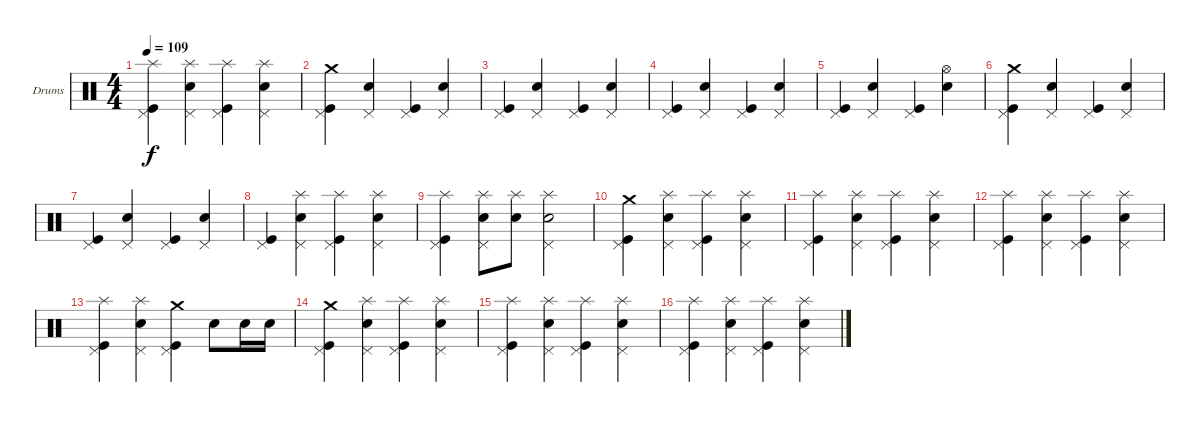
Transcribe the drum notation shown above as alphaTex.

\bracketExtendMode groupsimilarinstruments
\firstSystemTrackNameOrientation horizontal
\otherSystemsTrackNameOrientation horizontal
\track ("Drumkit" "Drums") {instrument percussion}
\staff {score}
\articulation defaults
\ts (4 4)
\tempo 109
\clef neutral
\ks c
("Splash (hit)" "Pedal Hi-Hat (hit)" "Kick (hit)").4{dy f} ("Splash (hit)" "Pedal Hi-Hat (hit)" "Snare (hit) 2").4 ("Splash (hit)" "Pedal Hi-Hat (hit)" "Kick (hit)").4 ("Splash (hit)" "Pedal Hi-Hat (hit)" "Snare (hit) 2").4 |
("Crash medium (hit)" "Pedal Hi-Hat (hit)" "Kick (hit)").4 ("Pedal Hi-Hat (hit)" "Snare (hit) 2").4 ("Pedal Hi-Hat (hit)" "Kick (hit)").4 ("Pedal Hi-Hat (hit)" "Snare (hit) 2").4 |
("Pedal Hi-Hat (hit)" "Kick (hit)").4 ("Pedal Hi-Hat (hit)" "Snare (hit) 2").4 ("Pedal Hi-Hat (hit)" "Kick (hit)").4 ("Pedal Hi-Hat (hit)" "Snare (hit) 2").4 |
("Pedal Hi-Hat (hit)" "Kick (hit)").4 ("Pedal Hi-Hat (hit)" "Snare (hit) 2").4 ("Pedal Hi-Hat (hit)" "Kick (hit)").4 ("Pedal Hi-Hat (hit)" "Snare (hit) 2").4 |
("Pedal Hi-Hat (hit)" "Kick (hit)").4 ("Pedal Hi-Hat (hit)" "Snare (hit) 2").4 ("Pedal Hi-Hat (hit)" "Kick (hit)").4 ("Hi-Hat (open)" "Snare (hit) 2").4 |
("Crash medium (hit)" "Pedal Hi-Hat (hit)" "Kick (hit)").4 ("Pedal Hi-Hat (hit)" "Snare (hit) 2").4 ("Pedal Hi-Hat (hit)" "Kick (hit)").4 ("Pedal Hi-Hat (hit)" "Snare (hit) 2").4 |
("Pedal Hi-Hat (hit)" "Kick (hit)").4 ("Pedal Hi-Hat (hit)" "Snare (hit) 2").4 ("Pedal Hi-Hat (hit)" "Kick (hit)").4 ("Pedal Hi-Hat (hit)" "Snare (hit) 2").4 |
("Pedal Hi-Hat (hit)" "Kick (hit)").4 ("Splash (hit)" "Pedal Hi-Hat (hit)" "Snare (hit) 2").4 ("Splash (hit)" "Pedal Hi-Hat (hit)" "Kick (hit)").4 ("Splash (hit)" "Pedal Hi-Hat (hit)" "Snare (hit) 2").4 |
("Splash (hit)" "Pedal Hi-Hat (hit)" "Kick (hit)").4 ("Splash (hit)" "Pedal Hi-Hat (hit)" "Snare (hit) 2").8 ("Splash (hit)" "Snare (hit) 2").8 ("Splash (hit)" "Pedal Hi-Hat (hit)" "Snare (hit) 2").2 |
("Crash medium (hit)" "Pedal Hi-Hat (hit)" "Kick (hit)").4 ("Splash (hit)" "Pedal Hi-Hat (hit)" "Snare (hit) 2").4 ("Splash (hit)" "Pedal Hi-Hat (hit)" "Kick (hit)").4 ("Splash (hit)" "Pedal Hi-Hat (hit)" "Snare (hit) 2").4 |
("Splash (hit)" "Pedal Hi-Hat (hit)" "Kick (hit)").4 ("Splash (hit)" "Pedal Hi-Hat (hit)" "Snare (hit) 2").4 ("Splash (hit)" "Pedal Hi-Hat (hit)" "Kick (hit)").4 ("Splash (hit)" "Pedal Hi-Hat (hit)" "Snare (hit) 2").4 |
("Splash (hit)" "Pedal Hi-Hat (hit)" "Kick (hit)").4 ("Splash (hit)" "Pedal Hi-Hat (hit)" "Snare (hit) 2").4 ("Splash (hit)" "Pedal Hi-Hat (hit)" "Kick (hit)").4 ("Splash (hit)" "Pedal Hi-Hat (hit)" "Snare (hit) 2").4 |
("Splash (hit)" "Pedal Hi-Hat (hit)" "Kick (hit)").4 ("Splash (hit)" "Pedal Hi-Hat (hit)" "Snare (hit) 2").4 ("Crash medium (hit)" "Pedal Hi-Hat (hit)" "Kick (hit)").4 "Snare (hit) 2".8 "Snare (hit) 2".16 "Snare (hit) 2".16 |
("Crash medium (hit)" "Pedal Hi-Hat (hit)" "Kick (hit)").4 ("Splash (hit)" "Pedal Hi-Hat (hit)" "Snare (hit) 2").4 ("Splash (hit)" "Pedal Hi-Hat (hit)" "Kick (hit)").4 ("Splash (hit)" "Pedal Hi-Hat (hit)" "Snare (hit) 2").4 |
("Splash (hit)" "Pedal Hi-Hat (hit)" "Kick (hit)").4 ("Splash (hit)" "Pedal Hi-Hat (hit)" "Snare (hit) 2").4 ("Splash (hit)" "Pedal Hi-Hat (hit)" "Kick (hit)").4 ("Splash (hit)" "Pedal Hi-Hat (hit)" "Snare (hit) 2").4 |
("Splash (hit)" "Pedal Hi-Hat (hit)" "Kick (hit)").4 ("Splash (hit)" "Pedal Hi-Hat (hit)" "Snare (hit) 2").4 ("Splash (hit)" "Pedal Hi-Hat (hit)" "Kick (hit)").4 ("Splash (hit)" "Pedal Hi-Hat (hit)" "Snare (hit) 2").4
